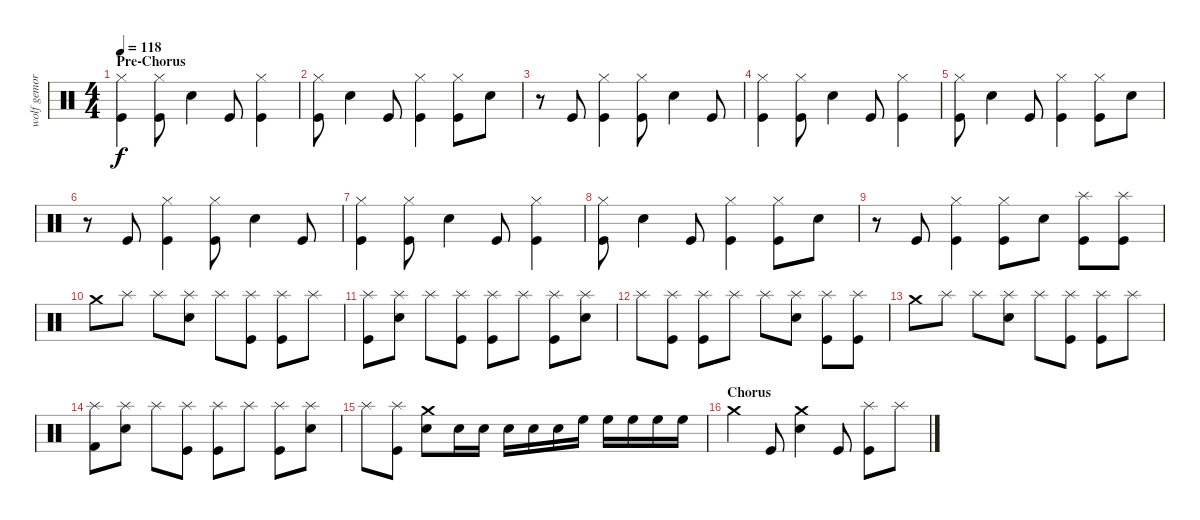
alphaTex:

\track ("wolf gemora" "wolf gemor") {instrument percussion}
\staff {score}
\articulation defaults
\ts (4 4)
\section ("" "Pre-Chorus")
\tempo 118
\clef neutral
\ks c
("Kick (hit)" "Hi-Hat (closed)").4{dy f balance 8} ("Kick (hit)" "Hi-Hat (closed)").8 "Electric Snare (hit)".4 "Kick (hit)".8 ("Kick (hit)" "Hi-Hat (closed)").4 |
("Kick (hit)" "Hi-Hat (closed)").8 "Electric Snare (hit)".4 "Kick (hit)".8 ("Kick (hit)" "Hi-Hat (closed)").4 ("Kick (hit)" "Hi-Hat (closed)").8 "Electric Snare (hit)".8 |
r.8 "Kick (hit)".8 ("Kick (hit)" "Hi-Hat (closed)").4 ("Kick (hit)" "Hi-Hat (closed)").8 "Electric Snare (hit)".4 "Kick (hit)".8 |
("Kick (hit)" "Hi-Hat (closed)").4 ("Kick (hit)" "Hi-Hat (closed)").8 "Electric Snare (hit)".4 "Kick (hit)".8 ("Kick (hit)" "Hi-Hat (closed)").4 |
("Kick (hit)" "Hi-Hat (closed)").8 "Electric Snare (hit)".4 "Kick (hit)".8 ("Kick (hit)" "Hi-Hat (closed)").4 ("Kick (hit)" "Hi-Hat (closed)").8 "Electric Snare (hit)".8 |
r.8 "Kick (hit)".8 ("Kick (hit)" "Hi-Hat (closed)").4 ("Kick (hit)" "Hi-Hat (closed)").8 "Electric Snare (hit)".4 "Kick (hit)".8 |
("Kick (hit)" "Hi-Hat (closed)").4 ("Kick (hit)" "Hi-Hat (closed)").8 "Electric Snare (hit)".4 "Kick (hit)".8 ("Kick (hit)" "Hi-Hat (closed)").4 |
("Kick (hit)" "Hi-Hat (closed)").8 "Electric Snare (hit)".4 "Kick (hit)".8 ("Kick (hit)" "Hi-Hat (closed)").4 ("Kick (hit)" "Hi-Hat (closed)").8 "Electric Snare (hit)".8 |
r.8 "Kick (hit)".8 ("Kick (hit)" "Hi-Hat (closed)").4 ("Kick (hit)" "Hi-Hat (closed)").8 "Electric Snare (hit)".8 ("Kick (hit)" "Splash (hit)").8 ("Kick (hit)" "Splash (hit)").8 |
"Crash medium (hit)".8 "Splash (hit)".8 "Splash (hit)".8 ("Electric Snare (hit)" "Splash (hit)").8 "Splash (hit)".8 ("Kick (hit)" "Splash (hit)").8 ("Kick (hit)" "Splash (hit)").8 "Splash (hit)".8 |
("Kick (hit)" "Splash (hit)").8 ("Electric Snare (hit)" "Splash (hit)").8 "Splash (hit)".8 ("Kick (hit)" "Splash (hit)").8 ("Kick (hit)" "Splash (hit)").8 "Splash (hit)".8 ("Kick (hit)" "Splash (hit)").8 ("Electric Snare (hit)" "Splash (hit)").8 |
"Splash (hit)".8 ("Kick (hit)" "Splash (hit)").8 ("Kick (hit)" "Splash (hit)").8 "Splash (hit)".8 "Splash (hit)".8 ("Electric Snare (hit)" "Splash (hit)").8 ("Kick (hit)" "Splash (hit)").8 ("Kick (hit)" "Splash (hit)").8 |
"Crash medium (hit)".8 "Splash (hit)".8 "Splash (hit)".8 ("Electric Snare (hit)" "Splash (hit)").8 "Splash (hit)".8 ("Kick (hit)" "Splash (hit)").8 ("Kick (hit)" "Splash (hit)").8 "Splash (hit)".8 |
("Kick (hit) 2" "Splash (hit)").8 ("Electric Snare (hit)" "Splash (hit)").8 "Splash (hit)".8 ("Kick (hit)" "Splash (hit)").8 ("Kick (hit)" "Splash (hit)").8 "Splash (hit)".8 ("Kick (hit)" "Splash (hit)").8 ("Electric Snare (hit)" "Splash (hit)").8 |
"Splash (hit)".8 ("Kick (hit)" "Splash (hit)").8 ("Electric Snare (hit)" "Crash medium (hit)").8 "Electric Snare (hit)".16 "Electric Snare (hit)".16 "Electric Snare (hit)".16 "Electric Snare (hit)".16 "Electric Snare (hit)".16 "High Floor Tom (hit)".16 "High Floor Tom (hit)".16 "High Floor Tom (hit)".16 "High Floor Tom (hit)".16 "High Floor Tom (hit)".16 |
\section ("" "Chorus")
"Crash medium (hit)".4 "Kick (hit)".8 ("Electric Snare (hit)" "Crash medium (hit)").4 "Kick (hit)".8 ("Kick (hit)" "Splash (hit)").8 "Splash (hit)".8
